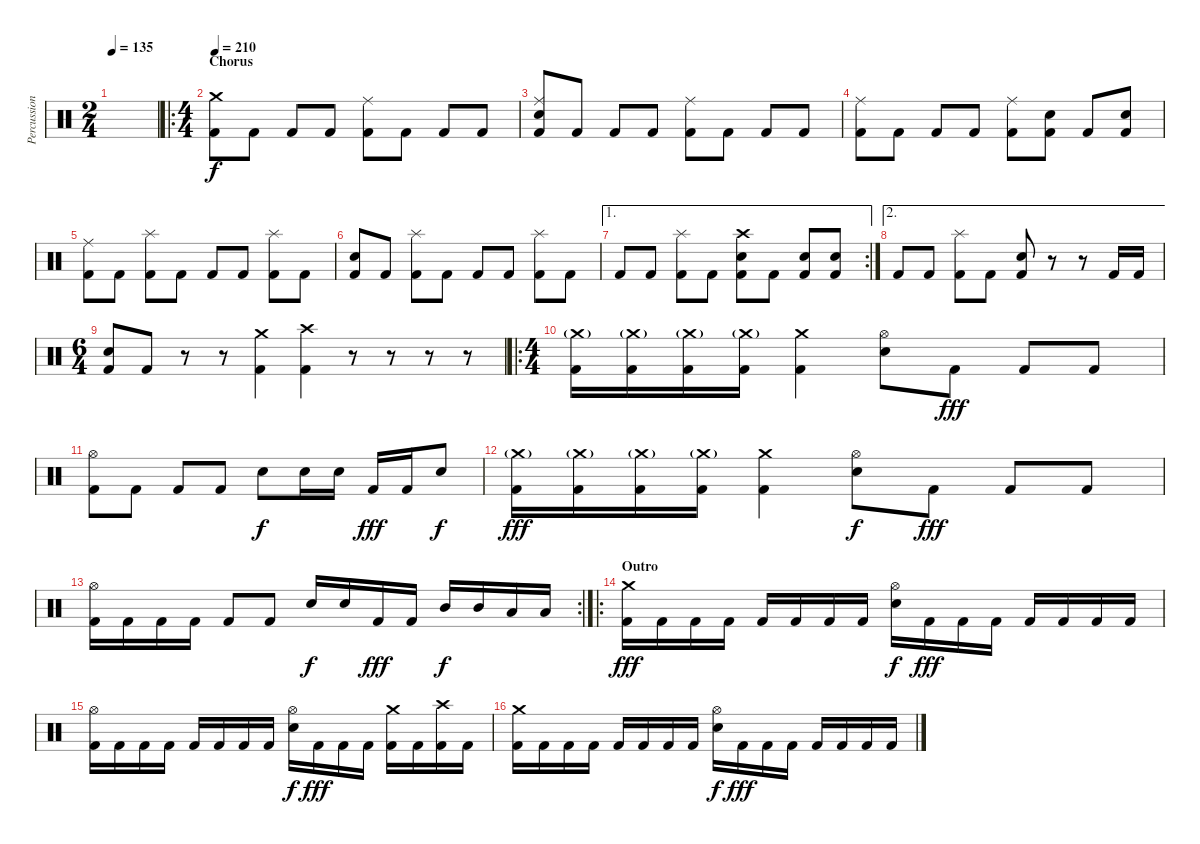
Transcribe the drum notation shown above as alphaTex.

\track ("Percussions" "Percussion") {instrument percussion}
\staff {score}
\articulation defaults
\ts (2 4)
\tempo 135
\clef neutral
\ks c
|
\ro
\ts (4 4)
\section ("" "Chorus")
\tempo 210
("Crash medium (hit)" "Kick (hit) 2").8 "Kick (hit) 2".8 "Kick (hit) 2".8 "Kick (hit) 2".8 ("Ride (middle)" "Kick (hit) 2").8 "Kick (hit) 2".8 "Kick (hit) 2".8 "Kick (hit) 2".8 |
("Ride (middle)" "Electric Snare (hit)" "Kick (hit) 2").8 "Kick (hit) 2".8 "Kick (hit) 2".8 "Kick (hit) 2".8 ("Ride (middle)" "Kick (hit) 2").8 "Kick (hit) 2".8 "Kick (hit) 2".8 "Kick (hit) 2".8 |
("Ride (middle)" "Kick (hit) 2").8 "Kick (hit) 2".8 "Kick (hit) 2".8 "Kick (hit) 2".8 ("Ride (middle)" "Kick (hit) 2").8 ("Electric Snare (hit)" "Kick (hit) 2").8 "Kick (hit) 2".8 ("Electric Snare (hit)" "Kick (hit) 2").8 |
("Ride (middle)" "Kick (hit) 2").8 "Kick (hit) 2".8 ("Splash (hit)" "Kick (hit) 2").8 "Kick (hit) 2".8 "Kick (hit) 2".8 "Kick (hit) 2".8 ("Splash (hit)" "Kick (hit) 2").8 "Kick (hit) 2".8 |
("Electric Snare (hit)" "Kick (hit) 2").8 "Kick (hit) 2".8 ("Splash (hit)" "Kick (hit) 2").8 "Kick (hit) 2".8 "Kick (hit) 2".8 "Kick (hit) 2".8 ("Splash (hit)" "Kick (hit) 2").8 "Kick (hit) 2".8 |
\ae 1
\rc 2 "Kick (hit) 2".8 "Kick (hit) 2".8
("Splash (hit)" "Kick (hit) 2").8 "Kick (hit) 2".8 ("Crash high (hit)" "Electric Snare (hit)" "Kick (hit) 2").8 "Kick (hit) 2".8 ("Electric Snare (hit)" "Kick (hit) 2").8 ("Electric Snare (hit)" "Kick (hit) 2").8 |
\ae 2 "Kick (hit) 2".8 "Kick (hit) 2".8
("Splash (hit)" "Kick (hit) 2").8 "Kick (hit) 2".8 ("Electric Snare (hit)" "Kick (hit) 2").8 r.8 r.8 "Kick (hit) 2".16 "Kick (hit) 2".16 |
\ts (6 4)
("Electric Snare (hit)" "Kick (hit) 2").8 "Kick (hit) 2".8 r.8 r.8 ("Crash medium (hit)" "Kick (hit) 2").4 ("Crash high (hit)" "Kick (hit) 2").4 r.8 r.8 r.8 r.8 |
\ro
\ts (4 4)
("Crash medium (hit)"{g} "Kick (hit) 2").16 ("Crash medium (hit)"{g} "Kick (hit) 2").16 ("Crash medium (hit)"{g} "Kick (hit) 2").16 ("Crash medium (hit)"{g} "Kick (hit) 2").16 ("Crash medium (hit)" "Kick (hit) 2").4 ("Hi-Hat (open)" "Electric Snare (hit)").8{dy f} "Kick (hit) 2".8{dy fff} "Kick (hit) 2".8 "Kick (hit) 2".8 |
("Hi-Hat (open)" "Kick (hit) 2").8 "Kick (hit) 2".8 "Kick (hit) 2".8 "Kick (hit) 2".8 "Electric Snare (hit)".8{dy f} "Electric Snare (hit)".16 "Electric Snare (hit)".16 "Kick (hit) 2".16{dy fff} "Kick (hit) 2".16 "Electric Snare (hit)".8{dy f} |
("Crash medium (hit)"{g} "Kick (hit) 2").16{dy fff} ("Crash medium (hit)"{g} "Kick (hit) 2").16 ("Crash medium (hit)"{g} "Kick (hit) 2").16 ("Crash medium (hit)"{g} "Kick (hit) 2").16 ("Crash medium (hit)" "Kick (hit) 2").4 ("Hi-Hat (open)" "Electric Snare (hit)").8{dy f} "Kick (hit) 2".8{dy fff} "Kick (hit) 2".8 "Kick (hit) 2".8 |
\rc 2
("Hi-Hat (open)" "Kick (hit) 2").16 "Kick (hit) 2".16 "Kick (hit) 2".16 "Kick (hit) 2".16 "Kick (hit) 2".8 "Kick (hit) 2".8 "Electric Snare (hit)".16{dy f} "Electric Snare (hit)".16 "Kick (hit) 2".16{dy fff} "Kick (hit) 2".16 "Mid Tom (hit)".16{dy f} "Mid Tom (hit)".16 "Low Tom (hit)".16 "Low Tom (hit)".16 |
\ro
\section ("" "Outro")
("Crash medium (hit)" "Kick (hit) 2").16{dy fff} "Kick (hit) 2".16 "Kick (hit) 2".16 "Kick (hit) 2".16 "Kick (hit) 2".16 "Kick (hit) 2".16 "Kick (hit) 2".16 "Kick (hit) 2".16 ("Hi-Hat (open)" "Electric Snare (hit)").16{dy f} "Kick (hit) 2".16{dy fff} "Kick (hit) 2".16 "Kick (hit) 2".16 "Kick (hit) 2".16 "Kick (hit) 2".16 "Kick (hit) 2".16 "Kick (hit) 2".16 |
("Hi-Hat (open)" "Kick (hit) 2").16 "Kick (hit) 2".16 "Kick (hit) 2".16 "Kick (hit) 2".16 "Kick (hit) 2".16 "Kick (hit) 2".16 "Kick (hit) 2".16 "Kick (hit) 2".16 ("Hi-Hat (open)" "Electric Snare (hit)").16{dy f} "Kick (hit) 2".16{dy fff} "Kick (hit) 2".16 "Kick (hit) 2".16 ("Crash medium (hit)" "Kick (hit) 2").16 "Kick (hit) 2".16 ("Crash high (hit)" "Kick (hit) 2").16 "Kick (hit) 2".16 |
("Crash medium (hit)" "Kick (hit) 2").16 "Kick (hit) 2".16 "Kick (hit) 2".16 "Kick (hit) 2".16 "Kick (hit) 2".16 "Kick (hit) 2".16 "Kick (hit) 2".16 "Kick (hit) 2".16 ("Hi-Hat (open)" "Electric Snare (hit)").16{dy f} "Kick (hit) 2".16{dy fff} "Kick (hit) 2".16 "Kick (hit) 2".16 "Kick (hit) 2".16 "Kick (hit) 2".16 "Kick (hit) 2".16 "Kick (hit) 2".16
